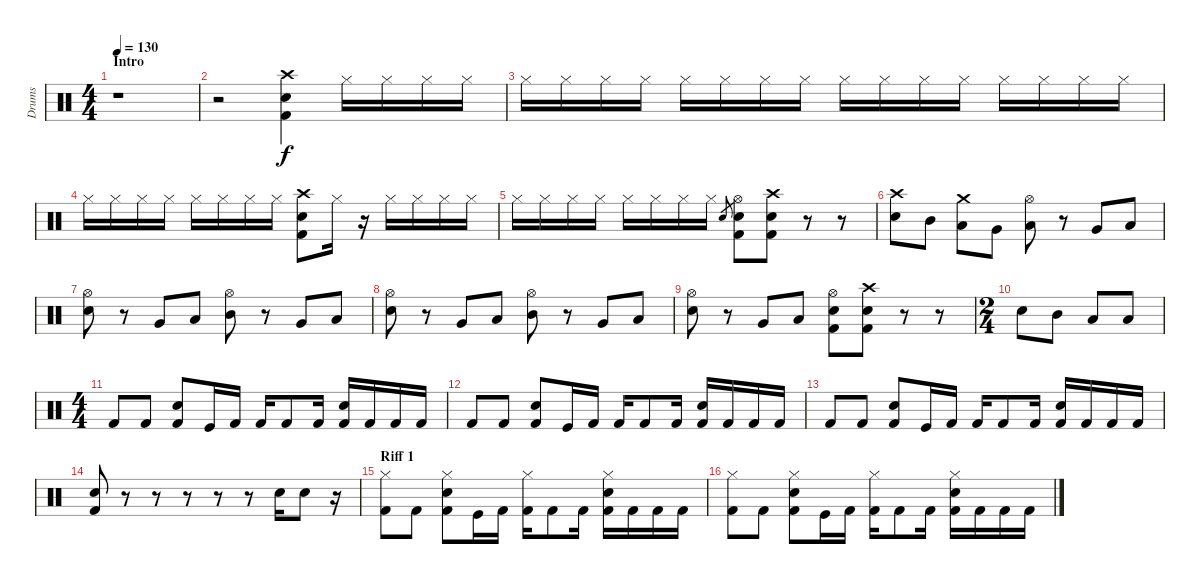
\track ("Drums" "Drums") {instrument percussion}
\staff {score}
\articulation defaults
\ts (4 4)
\section ("" "Intro")
\tempo 130
\clef neutral
\ks c
r.1{dy f} |
r.2 ("Crash high (hit)" "Electric Snare (hit)" "Kick (hit) 2").4 "Hi-Hat (closed)".16 "Hi-Hat (closed)".16 "Hi-Hat (closed)".16 "Hi-Hat (closed)".16 |
"Hi-Hat (closed)".16 "Hi-Hat (closed)".16 "Hi-Hat (closed)".16 "Hi-Hat (closed)".16 "Hi-Hat (closed)".16 "Hi-Hat (closed)".16 "Hi-Hat (closed)".16 "Hi-Hat (closed)".16 "Hi-Hat (closed)".16 "Hi-Hat (closed)".16 "Hi-Hat (closed)".16 "Hi-Hat (closed)".16 "Hi-Hat (closed)".16 "Hi-Hat (closed)".16 "Hi-Hat (closed)".16 "Hi-Hat (closed)".16 |
"Hi-Hat (closed)".16 "Hi-Hat (closed)".16 "Hi-Hat (closed)".16 "Hi-Hat (closed)".16 "Hi-Hat (closed)".16 "Hi-Hat (closed)".16 "Hi-Hat (closed)".16 "Hi-Hat (closed)".16 ("Crash high (hit)" "Electric Snare (hit)" "Kick (hit) 2").8 "Hi-Hat (closed)".16 r.16 "Hi-Hat (closed)".16 "Hi-Hat (closed)".16 "Hi-Hat (closed)".16 "Hi-Hat (closed)".16 |
"Hi-Hat (closed)".16 "Hi-Hat (closed)".16 "Hi-Hat (closed)".16 "Hi-Hat (closed)".16 "Hi-Hat (closed)".16 "Hi-Hat (closed)".16 "Hi-Hat (closed)".16 "Hi-Hat (closed)".16 "Electric Snare (hit)".8{gr} ("Hi-Hat (open)" "Electric Snare (hit)" "Kick (hit) 2").8 ("Crash high (hit)" "Electric Snare (hit)" "Kick (hit) 2").8 r.8 r.8 |
("Crash high (hit)" "Electric Snare (hit)").8 "Mid Tom (hit)".8 ("Crash medium (hit)" "Low Tom (hit)").8 "Very Low Tom (hit)".8 ("Hi-Hat (open)" "Low Tom (hit)").8 r.8 "Very Low Tom (hit)".8 "Low Floor Tom (hit)".8 |
("Hi-Hat (open)" "Electric Snare (hit)").8 r.8 "Very Low Tom (hit)".8 "Low Floor Tom (hit)".8 ("Hi-Hat (open)" "Mid Tom (hit)").8 r.8 "Very Low Tom (hit)".8 "Low Floor Tom (hit)".8 |
("Hi-Hat (open)" "Electric Snare (hit)").8 r.8 "Very Low Tom (hit)".8 "Low Floor Tom (hit)".8 ("Hi-Hat (open)" "Mid Tom (hit)").8 r.8 "Very Low Tom (hit)".8 "Low Floor Tom (hit)".8 |
("Hi-Hat (open)" "Electric Snare (hit)").8 r.8 "Very Low Tom (hit)".8 "Low Floor Tom (hit)".8 ("Hi-Hat (open)" "Electric Snare (hit)" "Kick (hit) 2").8 ("Crash high (hit)" "Electric Snare (hit)" "Kick (hit) 2").8 r.8 r.8 |
\ts (2 4)
"Electric Snare (hit)".8 "Mid Tom (hit)".8 "Low Tom (hit)".8 "Low Floor Tom (hit)".8 |
\ts (4 4)
"Kick (hit) 2".8 "Kick (hit) 2".8 ("Electric Snare (hit)" "Kick (hit) 2").8 "Kick (hit)".16 "Kick (hit) 2".16 "Kick (hit) 2".16 "Kick (hit) 2".8 "Kick (hit) 2".16 ("Electric Snare (hit)" "Kick (hit) 2").16 "Kick (hit) 2".16 "Kick (hit) 2".16 "Kick (hit) 2".16 |
"Kick (hit) 2".8 "Kick (hit) 2".8 ("Electric Snare (hit)" "Kick (hit) 2").8 "Kick (hit)".16 "Kick (hit) 2".16 "Kick (hit) 2".16 "Kick (hit) 2".8 "Kick (hit) 2".16 ("Electric Snare (hit)" "Kick (hit) 2").16 "Kick (hit) 2".16 "Kick (hit) 2".16 "Kick (hit) 2".16 |
"Kick (hit) 2".8 "Kick (hit) 2".8 ("Electric Snare (hit)" "Kick (hit) 2").8 "Kick (hit)".16 "Kick (hit) 2".16 "Kick (hit) 2".16 "Kick (hit) 2".8 "Kick (hit) 2".16 ("Electric Snare (hit)" "Kick (hit) 2").16 "Kick (hit) 2".16 "Kick (hit) 2".16 "Kick (hit) 2".16 |
("Electric Snare (hit)" "Kick (hit) 2").8 r.8 r.8 r.8 r.8 r.8 "Electric Snare (hit)".16 "Snare (hit) 2".8 r.16 |
\section ("" "Riff 1")
("Hi-Hat (closed)" "Kick (hit) 2").8 "Kick (hit) 2".8 ("Hi-Hat (closed)" "Electric Snare (hit)" "Kick (hit) 2").8 "Kick (hit)".16 "Kick (hit) 2".16 ("Hi-Hat (closed)" "Kick (hit) 2").16 "Kick (hit) 2".8 "Kick (hit) 2".16 ("Hi-Hat (closed)" "Electric Snare (hit)" "Kick (hit) 2").16 "Kick (hit) 2".16 "Kick (hit) 2".16 "Kick (hit) 2".16 |
("Hi-Hat (closed)" "Kick (hit) 2").8 "Kick (hit) 2".8 ("Hi-Hat (closed)" "Electric Snare (hit)" "Kick (hit) 2").8 "Kick (hit)".16 "Kick (hit) 2".16 ("Hi-Hat (closed)" "Kick (hit) 2").16 "Kick (hit) 2".8 "Kick (hit) 2".16 ("Hi-Hat (closed)" "Electric Snare (hit)" "Kick (hit) 2").16 "Kick (hit) 2".16 "Kick (hit) 2".16 "Kick (hit) 2".16
